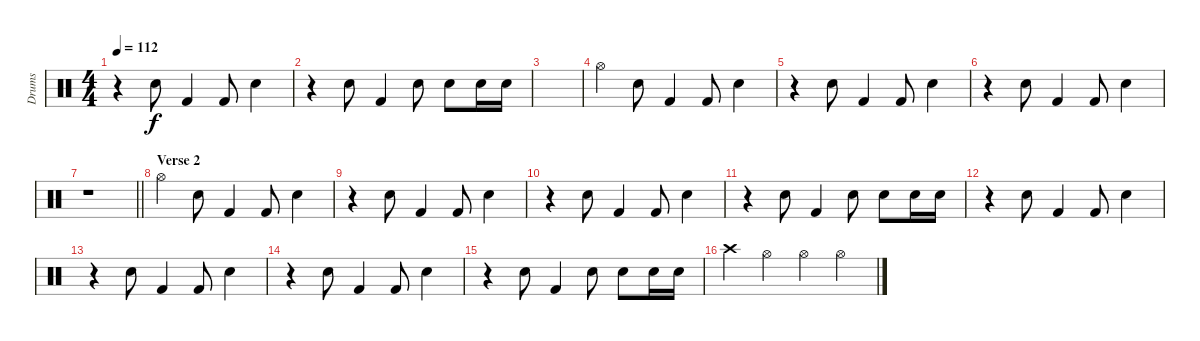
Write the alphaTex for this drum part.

\track ("Drums" "Drums") {instrument percussion}
\staff {score}
\articulation defaults
\ts (4 4)
\tempo 112
\clef neutral
\ks c
r.4{dy f} "Electric Snare (hit)".8 "Kick (hit) 2".4 "Kick (hit) 2".8 "Electric Snare (hit)".4 |
r.4 "Electric Snare (hit)".8 "Kick (hit) 2".4 "Electric Snare (hit)".8 "Electric Snare (hit)".8 "Electric Snare (hit)".16 "Electric Snare (hit)".16 |
|
"Hi-Hat (open)".4 "Electric Snare (hit)".8 "Kick (hit) 2".4 "Kick (hit) 2".8 "Electric Snare (hit)".4 |
r.4 "Electric Snare (hit)".8 "Kick (hit) 2".4 "Kick (hit) 2".8 "Electric Snare (hit)".4 |
r.4 "Electric Snare (hit)".8 "Kick (hit) 2".4 "Kick (hit) 2".8 "Electric Snare (hit)".4 |
\barLineRight lightlight
r.1 |
\section ("" "Verse 2")
"Hi-Hat (open)".4 "Electric Snare (hit)".8 "Kick (hit) 2".4 "Kick (hit) 2".8 "Electric Snare (hit)".4 |
r.4 "Electric Snare (hit)".8 "Kick (hit) 2".4 "Kick (hit) 2".8 "Electric Snare (hit)".4 |
r.4 "Electric Snare (hit)".8 "Kick (hit) 2".4 "Kick (hit) 2".8 "Electric Snare (hit)".4 |
r.4 "Electric Snare (hit)".8 "Kick (hit) 2".4 "Electric Snare (hit)".8 "Electric Snare (hit)".8 "Electric Snare (hit)".16 "Electric Snare (hit)".16 |
r.4 "Electric Snare (hit)".8 "Kick (hit) 2".4 "Kick (hit) 2".8 "Electric Snare (hit)".4 |
r.4 "Electric Snare (hit)".8 "Kick (hit) 2".4 "Kick (hit) 2".8 "Electric Snare (hit)".4 |
r.4 "Electric Snare (hit)".8 "Kick (hit) 2".4 "Kick (hit) 2".8 "Electric Snare (hit)".4 |
r.4 "Electric Snare (hit)".8 "Kick (hit) 2".4 "Electric Snare (hit)".8 "Electric Snare (hit)".8 "Electric Snare (hit)".16 "Electric Snare (hit)".16 |
"Crash high (hit)".4 "Hi-Hat (open)".4 "Hi-Hat (open)".4 "Hi-Hat (open)".4
